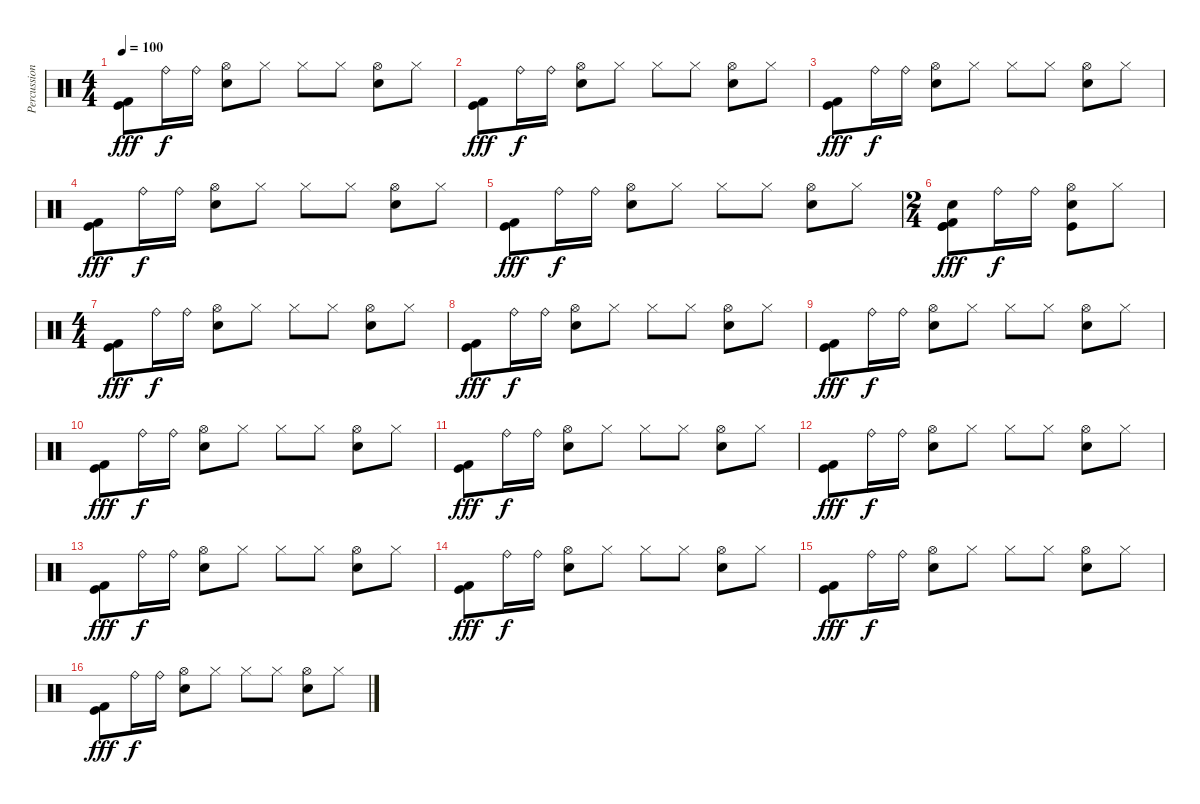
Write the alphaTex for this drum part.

\track ("Percussion" "Percussion") {instrument percussion}
\staff {score}
\articulation defaults
\ts (4 4)
\tempo 100
\clef neutral
\ks c
("Kick (hit) 2" "Kick (hit)").8{dy fff} "Ride (bell)".16{dy f} "Ride (bell)".16 ("Snare (hit) 2" "Hi-Hat (open)").8 "Hi-Hat (closed)".8 "Hi-Hat (closed)".8 "Hi-Hat (closed)".8 ("Snare (hit) 2" "Hi-Hat (open)").8 "Hi-Hat (closed)".8 |
("Kick (hit) 2" "Kick (hit)").8{dy fff} "Ride (bell)".16{dy f} "Ride (bell)".16 ("Snare (hit) 2" "Hi-Hat (open)").8 "Hi-Hat (closed)".8 "Hi-Hat (closed)".8 "Hi-Hat (closed)".8 ("Snare (hit) 2" "Hi-Hat (open)").8 "Hi-Hat (closed)".8 |
("Kick (hit) 2" "Kick (hit)").8{dy fff} "Ride (bell)".16{dy f} "Ride (bell)".16 ("Snare (hit) 2" "Hi-Hat (open)").8 "Hi-Hat (closed)".8 "Hi-Hat (closed)".8 "Hi-Hat (closed)".8 ("Snare (hit) 2" "Hi-Hat (open)").8 "Hi-Hat (closed)".8 |
("Kick (hit) 2" "Kick (hit)").8{dy fff} "Ride (bell)".16{dy f} "Ride (bell)".16 ("Snare (hit) 2" "Hi-Hat (open)").8 "Hi-Hat (closed)".8 "Hi-Hat (closed)".8 "Hi-Hat (closed)".8 ("Snare (hit) 2" "Hi-Hat (open)").8 "Hi-Hat (closed)".8 |
("Kick (hit) 2" "Kick (hit)").8{dy fff} "Ride (bell)".16{dy f} "Ride (bell)".16 ("Snare (hit) 2" "Hi-Hat (open)").8 "Hi-Hat (closed)".8 "Hi-Hat (closed)".8 "Hi-Hat (closed)".8 ("Snare (hit) 2" "Hi-Hat (open)").8 "Hi-Hat (closed)".8 |
\ts (2 4)
("Kick (hit)" "Snare (hit) 2" "Kick (hit) 2" "Kick (hit)").8{dy fff} "Ride (bell)".16{dy f} "Ride (bell)".16 ("Kick (hit)" "Snare (hit) 2" "Hi-Hat (open)").8 "Hi-Hat (closed)".8 |
\ts (4 4)
("Kick (hit) 2" "Kick (hit)").8{dy fff} "Ride (bell)".16{dy f} "Ride (bell)".16 ("Snare (hit) 2" "Hi-Hat (open)").8 "Hi-Hat (closed)".8 "Hi-Hat (closed)".8 "Hi-Hat (closed)".8 ("Snare (hit) 2" "Hi-Hat (open)").8 "Hi-Hat (closed)".8 |
("Kick (hit) 2" "Kick (hit)").8{dy fff} "Ride (bell)".16{dy f} "Ride (bell)".16 ("Snare (hit) 2" "Hi-Hat (open)").8 "Hi-Hat (closed)".8 "Hi-Hat (closed)".8 "Hi-Hat (closed)".8 ("Snare (hit) 2" "Hi-Hat (open)").8 "Hi-Hat (closed)".8 |
("Kick (hit) 2" "Kick (hit)").8{dy fff} "Ride (bell)".16{dy f} "Ride (bell)".16 ("Snare (hit) 2" "Hi-Hat (open)").8 "Hi-Hat (closed)".8 "Hi-Hat (closed)".8 "Hi-Hat (closed)".8 ("Snare (hit) 2" "Hi-Hat (open)").8 "Hi-Hat (closed)".8 |
("Kick (hit) 2" "Kick (hit)").8{dy fff} "Ride (bell)".16{dy f} "Ride (bell)".16 ("Snare (hit) 2" "Hi-Hat (open)").8 "Hi-Hat (closed)".8 "Hi-Hat (closed)".8 "Hi-Hat (closed)".8 ("Snare (hit) 2" "Hi-Hat (open)").8 "Hi-Hat (closed)".8 |
("Kick (hit) 2" "Kick (hit)").8{dy fff} "Ride (bell)".16{dy f} "Ride (bell)".16 ("Snare (hit) 2" "Hi-Hat (open)").8 "Hi-Hat (closed)".8 "Hi-Hat (closed)".8 "Hi-Hat (closed)".8 ("Snare (hit) 2" "Hi-Hat (open)").8 "Hi-Hat (closed)".8 |
("Kick (hit) 2" "Kick (hit)").8{dy fff} "Ride (bell)".16{dy f} "Ride (bell)".16 ("Snare (hit) 2" "Hi-Hat (open)").8 "Hi-Hat (closed)".8 "Hi-Hat (closed)".8 "Hi-Hat (closed)".8 ("Snare (hit) 2" "Hi-Hat (open)").8 "Hi-Hat (closed)".8 |
("Kick (hit) 2" "Kick (hit)").8{dy fff} "Ride (bell)".16{dy f} "Ride (bell)".16 ("Snare (hit) 2" "Hi-Hat (open)").8 "Hi-Hat (closed)".8 "Hi-Hat (closed)".8 "Hi-Hat (closed)".8 ("Snare (hit) 2" "Hi-Hat (open)").8 "Hi-Hat (closed)".8 |
("Kick (hit) 2" "Kick (hit)").8{dy fff} "Ride (bell)".16{dy f} "Ride (bell)".16 ("Snare (hit) 2" "Hi-Hat (open)").8 "Hi-Hat (closed)".8 "Hi-Hat (closed)".8 "Hi-Hat (closed)".8 ("Snare (hit) 2" "Hi-Hat (open)").8 "Hi-Hat (closed)".8 |
("Kick (hit) 2" "Kick (hit)").8{dy fff} "Ride (bell)".16{dy f} "Ride (bell)".16 ("Snare (hit) 2" "Hi-Hat (open)").8 "Hi-Hat (closed)".8 "Hi-Hat (closed)".8 "Hi-Hat (closed)".8 ("Snare (hit) 2" "Hi-Hat (open)").8 "Hi-Hat (closed)".8 |
("Kick (hit) 2" "Kick (hit)").8{dy fff} "Ride (bell)".16{dy f} "Ride (bell)".16 ("Snare (hit) 2" "Hi-Hat (open)").8 "Hi-Hat (closed)".8 "Hi-Hat (closed)".8 "Hi-Hat (closed)".8 ("Snare (hit) 2" "Hi-Hat (open)").8 "Hi-Hat (closed)".8
